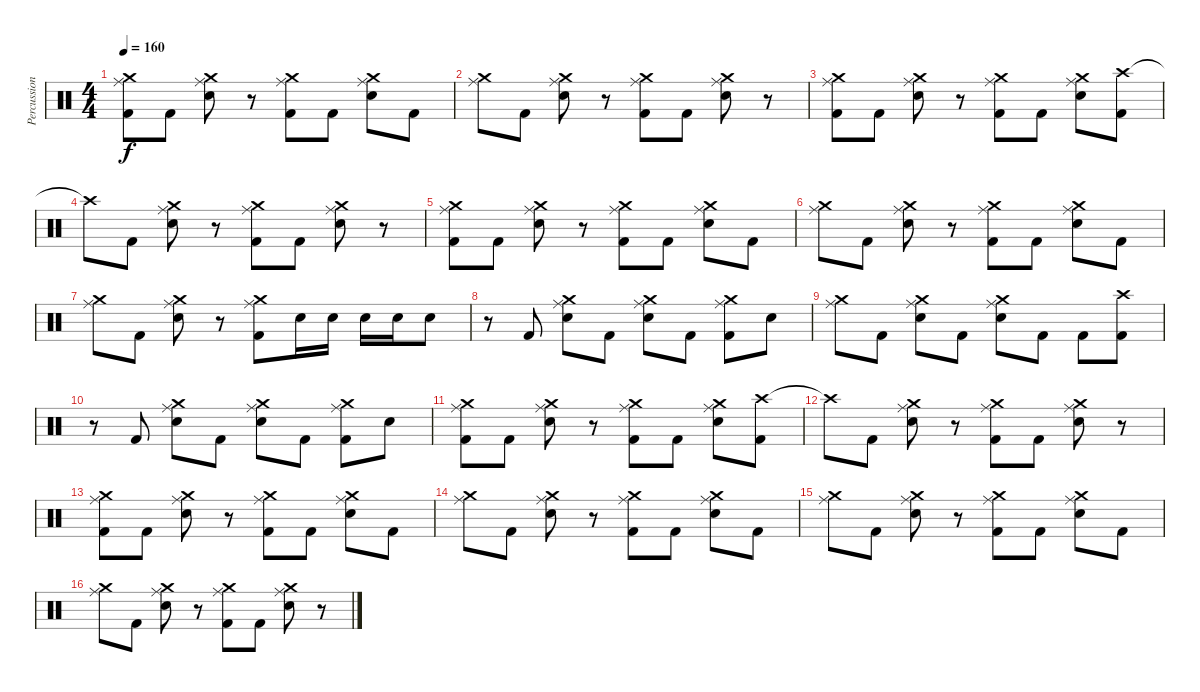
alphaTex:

\track ("Percussion" "Percussion") {instrument percussion}
\staff {score}
\articulation defaults
\ts (4 4)
\tempo 160
\clef neutral
\ks c
("Ride (middle)" "Crash medium (hit)" "Kick (hit) 2").8{dy f} "Kick (hit) 2".8 ("Ride (middle)" "Crash medium (hit)" "Electric Snare (hit)").8 r.8 ("Ride (middle)" "Crash medium (hit)" "Kick (hit) 2").8 "Kick (hit) 2".8 ("Ride (middle)" "Crash medium (hit)" "Electric Snare (hit)").8 "Kick (hit) 2".8 |
("Ride (middle)" "Crash medium (hit)").8 "Kick (hit) 2".8 ("Ride (middle)" "Crash medium (hit)" "Electric Snare (hit)").8 r.8 ("Ride (middle)" "Crash medium (hit)" "Kick (hit) 2").8 "Kick (hit) 2".8 ("Ride (middle)" "Crash medium (hit)" "Electric Snare (hit)").8 r.8 |
("Ride (middle)" "Crash medium (hit)" "Kick (hit) 2").8 "Kick (hit) 2".8 ("Ride (middle)" "Crash medium (hit)" "Electric Snare (hit)").8 r.8 ("Ride (middle)" "Crash medium (hit)" "Kick (hit) 2").8 "Kick (hit) 2".8 ("Ride (middle)" "Crash medium (hit)" "Electric Snare (hit)").8 ("Crash high (hit)" "Kick (hit) 2").8 |
"Crash high (hit)"{t}.8 "Kick (hit) 2".8 ("Ride (middle)" "Crash medium (hit)" "Electric Snare (hit)").8 r.8 ("Ride (middle)" "Crash medium (hit)" "Kick (hit) 2").8 "Kick (hit) 2".8 ("Ride (middle)" "Crash medium (hit)" "Electric Snare (hit)").8 r.8 |
("Ride (middle)" "Crash medium (hit)" "Kick (hit) 2").8 "Kick (hit) 2".8 ("Ride (middle)" "Crash medium (hit)" "Electric Snare (hit)").8 r.8 ("Ride (middle)" "Crash medium (hit)" "Kick (hit) 2").8 "Kick (hit) 2".8 ("Ride (middle)" "Crash medium (hit)" "Electric Snare (hit)").8 "Kick (hit) 2".8 |
("Ride (middle)" "Crash medium (hit)").8 "Kick (hit) 2".8 ("Ride (middle)" "Crash medium (hit)" "Electric Snare (hit)").8 r.8 ("Ride (middle)" "Crash medium (hit)" "Kick (hit) 2").8 "Kick (hit) 2".8 ("Ride (middle)" "Crash medium (hit)" "Electric Snare (hit)").8 "Kick (hit) 2".8 |
("Ride (middle)" "Crash medium (hit)").8 "Kick (hit) 2".8 ("Ride (middle)" "Crash medium (hit)" "Electric Snare (hit)").8 r.8 ("Ride (middle)" "Crash medium (hit)" "Kick (hit) 2").8 "Electric Snare (hit)".16 "Electric Snare (hit)".16 "Electric Snare (hit)".16 "Electric Snare (hit)".16 "Electric Snare (hit)".8 |
r.8 "Kick (hit) 2".8 ("Ride (middle)" "Crash medium (hit)" "Electric Snare (hit)").8 "Kick (hit) 2".8 ("Ride (middle)" "Crash medium (hit)" "Electric Snare (hit)").8 "Kick (hit) 2".8 ("Ride (middle)" "Crash medium (hit)" "Kick (hit) 2").8 "Electric Snare (hit)".8 |
("Ride (middle)" "Crash medium (hit)").8 "Kick (hit) 2".8 ("Ride (middle)" "Crash medium (hit)" "Electric Snare (hit)").8 "Kick (hit) 2".8 ("Ride (middle)" "Crash medium (hit)" "Electric Snare (hit)").8 "Kick (hit) 2".8 "Kick (hit) 2".8 ("Crash high (hit)" "Kick (hit) 2").8 |
r.8 "Kick (hit) 2".8 ("Ride (middle)" "Crash medium (hit)" "Electric Snare (hit)").8 "Kick (hit) 2".8 ("Ride (middle)" "Crash medium (hit)" "Electric Snare (hit)").8 "Kick (hit) 2".8 ("Ride (middle)" "Crash medium (hit)" "Kick (hit) 2").8 "Electric Snare (hit)".8 |
("Ride (middle)" "Crash medium (hit)" "Kick (hit) 2").8 "Kick (hit) 2".8 ("Ride (middle)" "Crash medium (hit)" "Electric Snare (hit)").8 r.8 ("Ride (middle)" "Crash medium (hit)" "Kick (hit) 2").8 "Kick (hit) 2".8 ("Ride (middle)" "Crash medium (hit)" "Electric Snare (hit)").8 ("Crash high (hit)" "Kick (hit) 2").8 |
"Crash high (hit)"{t}.8 "Kick (hit) 2".8 ("Ride (middle)" "Crash medium (hit)" "Electric Snare (hit)").8 r.8 ("Ride (middle)" "Crash medium (hit)" "Kick (hit) 2").8 "Kick (hit) 2".8 ("Ride (middle)" "Crash medium (hit)" "Electric Snare (hit)").8 r.8 |
("Ride (middle)" "Crash medium (hit)" "Kick (hit) 2").8 "Kick (hit) 2".8 ("Ride (middle)" "Crash medium (hit)" "Electric Snare (hit)").8 r.8 ("Ride (middle)" "Crash medium (hit)" "Kick (hit) 2").8 "Kick (hit) 2".8 ("Ride (middle)" "Crash medium (hit)" "Electric Snare (hit)").8 "Kick (hit) 2".8 |
("Ride (middle)" "Crash medium (hit)").8 "Kick (hit) 2".8 ("Ride (middle)" "Crash medium (hit)" "Electric Snare (hit)").8 r.8 ("Ride (middle)" "Crash medium (hit)" "Kick (hit) 2").8 "Kick (hit) 2".8 ("Ride (middle)" "Crash medium (hit)" "Electric Snare (hit)").8 "Kick (hit) 2".8 |
("Ride (middle)" "Crash medium (hit)").8 "Kick (hit) 2".8 ("Ride (middle)" "Crash medium (hit)" "Electric Snare (hit)").8 r.8 ("Ride (middle)" "Crash medium (hit)" "Kick (hit) 2").8 "Kick (hit) 2".8 ("Ride (middle)" "Crash medium (hit)" "Electric Snare (hit)").8 "Kick (hit) 2".8 |
("Ride (middle)" "Crash medium (hit)").8 "Kick (hit) 2".8 ("Ride (middle)" "Crash medium (hit)" "Electric Snare (hit)").8 r.8 ("Ride (middle)" "Crash medium (hit)" "Kick (hit) 2").8 "Kick (hit) 2".8 ("Ride (middle)" "Crash medium (hit)" "Electric Snare (hit)").8 r.8
